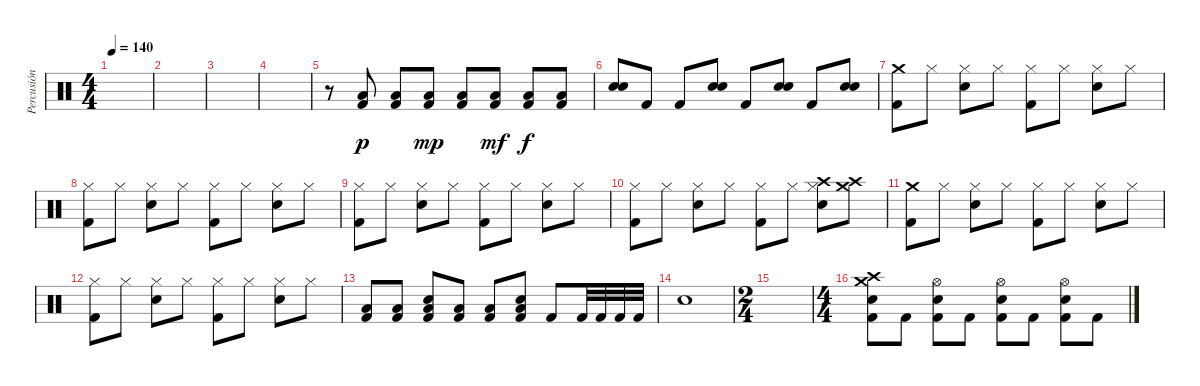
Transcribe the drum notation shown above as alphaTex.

\track ("Percusión" "Percusión") {instrument percussion}
\staff {score}
\articulation defaults
\ts (4 4)
\tempo 140
\clef neutral
\ks c
|
|
|
|
r.8 ("Kick (hit) 2" "Low Floor Tom (hit)").8{dy p} ("Kick (hit) 2" "Low Floor Tom (hit)").8 ("Kick (hit) 2" "Low Floor Tom (hit)").8{dy mp} ("Kick (hit) 2" "Low Floor Tom (hit)").8 ("Kick (hit) 2" "Low Floor Tom (hit)").8{dy mf} ("Kick (hit) 2" "Low Floor Tom (hit)").8{dy f} ("Kick (hit) 2" "Low Floor Tom (hit)").8 |
("Snare (hit) 2" "Snare (hit) 2").8 "Kick (hit) 2".8 "Kick (hit) 2".8 ("Snare (hit) 2" "Snare (hit) 2").8 "Kick (hit) 2".8 ("Snare (hit) 2" "Snare (hit) 2").8 "Kick (hit) 2".8 ("Snare (hit) 2" "Snare (hit) 2").8 |
("Crash medium (hit)" "Kick (hit) 2").8 "Hi-Hat (closed)".8 ("Hi-Hat (closed)" "Snare (hit) 2").8 "Hi-Hat (closed)".8 ("Hi-Hat (closed)" "Kick (hit) 2").8 "Hi-Hat (closed)".8 ("Hi-Hat (closed)" "Snare (hit) 2").8 "Hi-Hat (closed)".8 |
("Hi-Hat (closed)" "Kick (hit) 2").8 "Hi-Hat (closed)".8 ("Hi-Hat (closed)" "Snare (hit) 2").8 "Hi-Hat (closed)".8 ("Hi-Hat (closed)" "Kick (hit) 2").8 "Hi-Hat (closed)".8 ("Hi-Hat (closed)" "Snare (hit) 2").8 "Hi-Hat (closed)".8 |
("Hi-Hat (closed)" "Kick (hit) 2").8 "Hi-Hat (closed)".8 ("Hi-Hat (closed)" "Snare (hit) 2").8 "Hi-Hat (closed)".8 ("Hi-Hat (closed)" "Kick (hit) 2").8 "Hi-Hat (closed)".8 ("Hi-Hat (closed)" "Snare (hit) 2").8 "Hi-Hat (closed)".8 |
("Hi-Hat (closed)" "Kick (hit) 2").8 "Hi-Hat (closed)".8 ("Hi-Hat (closed)" "Snare (hit) 2").8 "Hi-Hat (closed)".8 ("Hi-Hat (closed)" "Kick (hit) 2").8 "Hi-Hat (closed)".8 ("Crash high (hit)" "Hi-Hat (closed)" "Snare (hit) 2").8 ("Crash medium (hit)" "Crash high (hit)").8 |
("Crash medium (hit)" "Kick (hit) 2").8 "Hi-Hat (closed)".8 ("Hi-Hat (closed)" "Snare (hit) 2").8 "Hi-Hat (closed)".8 ("Hi-Hat (closed)" "Kick (hit) 2").8 "Hi-Hat (closed)".8 ("Hi-Hat (closed)" "Snare (hit) 2").8 "Hi-Hat (closed)".8 |
("Hi-Hat (closed)" "Kick (hit) 2").8 "Hi-Hat (closed)".8 ("Hi-Hat (closed)" "Snare (hit) 2").8 "Hi-Hat (closed)".8 ("Hi-Hat (closed)" "Kick (hit) 2").8 "Hi-Hat (closed)".8 ("Hi-Hat (closed)" "Snare (hit) 2").8 "Hi-Hat (closed)".8 |
("Low Floor Tom (hit)" "Kick (hit) 2").8 ("Low Floor Tom (hit)" "Kick (hit) 2").8 ("Low Floor Tom (hit)" "Snare (hit) 2" "Kick (hit) 2").8 ("Low Floor Tom (hit)" "Kick (hit) 2").8 ("Low Floor Tom (hit)" "Kick (hit) 2").8 ("Low Floor Tom (hit)" "Snare (hit) 2" "Kick (hit) 2").8 "Kick (hit) 2".8 "Kick (hit) 2".32 "Kick (hit) 2".32 "Kick (hit) 2".32 "Kick (hit) 2".32 |
"Snare (hit) 2".1 |
\ts (2 4)
|
\ts (4 4)
("Crash high (hit)" "Snare (hit) 2" "Crash medium (hit)" "Kick (hit) 2").8 "Kick (hit) 2".8 ("Snare (hit) 2" "Hi-Hat (open)" "Kick (hit) 2").8 "Kick (hit) 2".8 ("Snare (hit) 2" "Hi-Hat (open)" "Kick (hit) 2").8 "Kick (hit) 2".8 ("Snare (hit) 2" "Hi-Hat (open)" "Kick (hit) 2").8 "Kick (hit) 2".8
